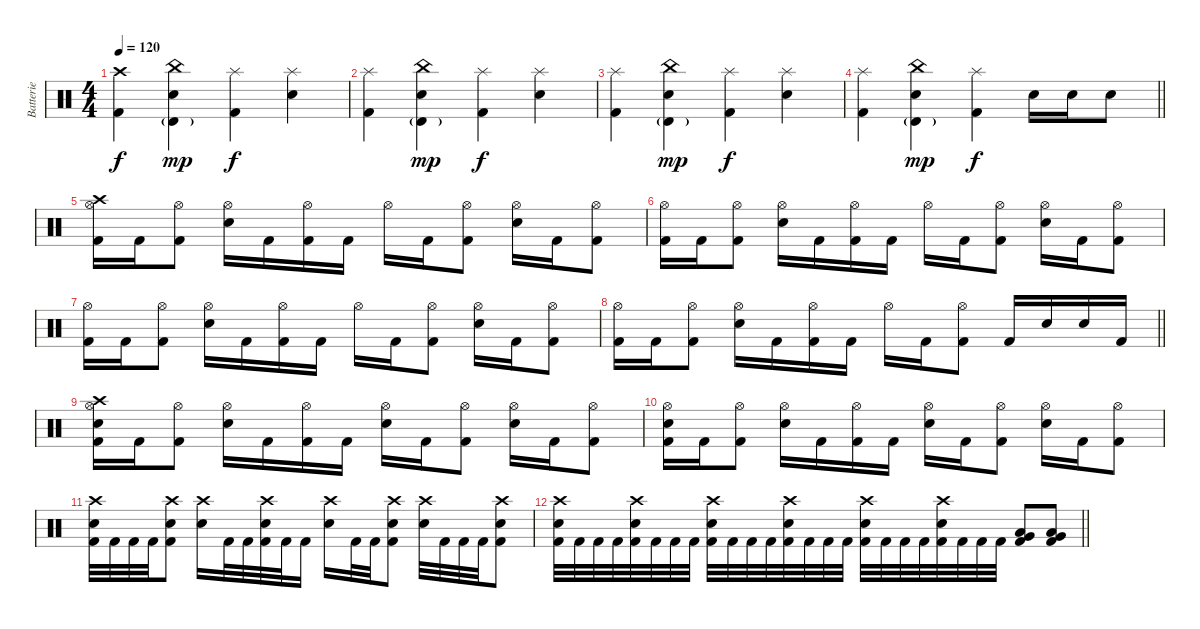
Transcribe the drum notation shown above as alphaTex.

\track ("Batterie" "Batterie") {instrument percussion}
\staff {score}
\articulation defaults
\ts (4 4)
\tempo 120
\clef neutral
\ks c
("Crash high (hit)" "Kick (hit) 2").4{dy f} ("China (hit)" "Electric Snare (hit)" "Timbale high (hit)"{g}).4{dy mp} ("Splash (hit)" "Kick (hit) 2").4{dy f} ("Splash (hit)" "Electric Snare (hit)").4 |
("Splash (hit)" "Kick (hit) 2").4 ("China (hit)" "Electric Snare (hit)" "Timbale high (hit)"{g}).4{dy mp} ("Splash (hit)" "Kick (hit) 2").4{dy f} ("Splash (hit)" "Electric Snare (hit)").4 |
("Splash (hit)" "Kick (hit) 2").4 ("China (hit)" "Electric Snare (hit)" "Timbale high (hit)"{g}).4{dy mp} ("Splash (hit)" "Kick (hit) 2").4{dy f} ("Splash (hit)" "Electric Snare (hit)").4 |
\barLineRight lightlight
("Splash (hit)" "Kick (hit) 2").4 ("China (hit)" "Electric Snare (hit)" "Timbale high (hit)"{g}).4{dy mp} ("Splash (hit)" "Kick (hit) 2").4{dy f} "Electric Snare (hit)".16 "Electric Snare (hit)".16 "Electric Snare (hit)".8 |
("Crash high (hit)" "Hi-Hat (open)" "Kick (hit) 2").16 "Kick (hit) 2".16 ("Hi-Hat (open)" "Kick (hit) 2").8 ("Hi-Hat (open)" "Electric Snare (hit)").16 "Kick (hit) 2".16 ("Hi-Hat (open)" "Kick (hit) 2").16 "Kick (hit) 2".16 "Hi-Hat (open)".16 "Kick (hit) 2".16 ("Hi-Hat (open)" "Kick (hit) 2").8 ("Hi-Hat (open)" "Electric Snare (hit)").16 "Kick (hit) 2".16 ("Hi-Hat (open)" "Kick (hit) 2").8 |
("Hi-Hat (open)" "Kick (hit) 2").16 "Kick (hit) 2".16 ("Hi-Hat (open)" "Kick (hit) 2").8 ("Hi-Hat (open)" "Electric Snare (hit)").16 "Kick (hit) 2".16 ("Hi-Hat (open)" "Kick (hit) 2").16 "Kick (hit) 2".16 "Hi-Hat (open)".16 "Kick (hit) 2".16 ("Hi-Hat (open)" "Kick (hit) 2").8 ("Hi-Hat (open)" "Electric Snare (hit)").16 "Kick (hit) 2".16 ("Hi-Hat (open)" "Kick (hit) 2").8 |
("Hi-Hat (open)" "Kick (hit) 2").16 "Kick (hit) 2".16 ("Hi-Hat (open)" "Kick (hit) 2").8 ("Hi-Hat (open)" "Electric Snare (hit)").16 "Kick (hit) 2".16 ("Hi-Hat (open)" "Kick (hit) 2").16 "Kick (hit) 2".16 "Hi-Hat (open)".16 "Kick (hit) 2".16 ("Hi-Hat (open)" "Kick (hit) 2").8 ("Hi-Hat (open)" "Electric Snare (hit)").16 "Kick (hit) 2".16 ("Hi-Hat (open)" "Kick (hit) 2").8 |
\barLineRight lightlight
("Hi-Hat (open)" "Kick (hit) 2").16 "Kick (hit) 2".16 ("Hi-Hat (open)" "Kick (hit) 2").8 ("Hi-Hat (open)" "Electric Snare (hit)").16 "Kick (hit) 2".16 ("Hi-Hat (open)" "Kick (hit) 2").16 "Kick (hit) 2".16 "Hi-Hat (open)".16 "Kick (hit) 2".16 ("Hi-Hat (open)" "Kick (hit) 2").8 "Kick (hit) 2".16 "Electric Snare (hit)".16 "Electric Snare (hit)".16 "Kick (hit) 2".16 |
("Crash high (hit)" "Hi-Hat (open)" "Electric Snare (hit)" "Kick (hit) 2").16 "Kick (hit) 2".16 ("Hi-Hat (open)" "Kick (hit) 2").8 ("Hi-Hat (open)" "Electric Snare (hit)").16 "Kick (hit) 2".16 ("Hi-Hat (open)" "Kick (hit) 2").16 "Kick (hit) 2".16 ("Hi-Hat (open)" "Electric Snare (hit)").16 "Kick (hit) 2".16 ("Hi-Hat (open)" "Kick (hit) 2").8 ("Hi-Hat (open)" "Electric Snare (hit)").16 "Kick (hit) 2".16 ("Hi-Hat (open)" "Kick (hit) 2").8 |
("Hi-Hat (open)" "Electric Snare (hit)" "Kick (hit) 2").16 "Kick (hit) 2".16 ("Hi-Hat (open)" "Kick (hit) 2").8 ("Hi-Hat (open)" "Electric Snare (hit)").16 "Kick (hit) 2".16 ("Hi-Hat (open)" "Kick (hit) 2").16 "Kick (hit) 2".16 ("Hi-Hat (open)" "Electric Snare (hit)").16 "Kick (hit) 2".16 ("Hi-Hat (open)" "Kick (hit) 2").8 ("Hi-Hat (open)" "Electric Snare (hit)").16 "Kick (hit) 2".16 ("Hi-Hat (open)" "Kick (hit) 2").8 |
("Crash high (hit)" "Electric Snare (hit)" "Kick (hit) 2").32 "Kick (hit) 2".32 "Kick (hit) 2".32 "Kick (hit) 2".32 ("Crash high (hit)" "Electric Snare (hit)" "Kick (hit) 2").8 ("Crash high (hit)" "Electric Snare (hit)").16 "Kick (hit) 2".32 "Kick (hit) 2".32 ("Crash high (hit)" "Electric Snare (hit)" "Kick (hit) 2").32 "Kick (hit) 2".32 "Kick (hit) 2".16 ("Crash high (hit)" "Electric Snare (hit)").16 "Kick (hit) 2".32 "Kick (hit) 2".32 ("Crash high (hit)" "Electric Snare (hit)" "Kick (hit) 2").8 ("Crash high (hit)" "Electric Snare (hit)").32 "Kick (hit) 2".32 "Kick (hit) 2".32 "Kick (hit) 2".32 ("Crash high (hit)" "Electric Snare (hit)" "Kick (hit) 2").8 |
\barLineRight lightlight
("Crash high (hit)" "Electric Snare (hit)" "Kick (hit) 2").32 "Kick (hit) 2".32 "Kick (hit) 2".32 "Kick (hit) 2".32 ("Crash high (hit)" "Electric Snare (hit)" "Kick (hit) 2").32 "Kick (hit) 2".32 "Kick (hit) 2".32 "Kick (hit) 2".32 ("Crash high (hit)" "Electric Snare (hit)" "Kick (hit) 2").32 "Kick (hit) 2".32 "Kick (hit) 2".32 "Kick (hit) 2".32 ("Crash high (hit)" "Electric Snare (hit)" "Kick (hit) 2").32 "Kick (hit) 2".32 "Kick (hit) 2".32 "Kick (hit) 2".32 ("Crash high (hit)" "Electric Snare (hit)" "Kick (hit) 2").32 "Kick (hit) 2".32 "Kick (hit) 2".32 "Kick (hit) 2".32 ("Crash high (hit)" "Electric Snare (hit)" "Kick (hit) 2").32 "Kick (hit) 2".32 "Kick (hit) 2".32 "Kick (hit) 2".32 ("Low Tom (hit)" "Very Low Tom (hit)" "Kick (hit) 2").8 ("Low Tom (hit)" "Very Low Tom (hit)" "Kick (hit) 2").8
